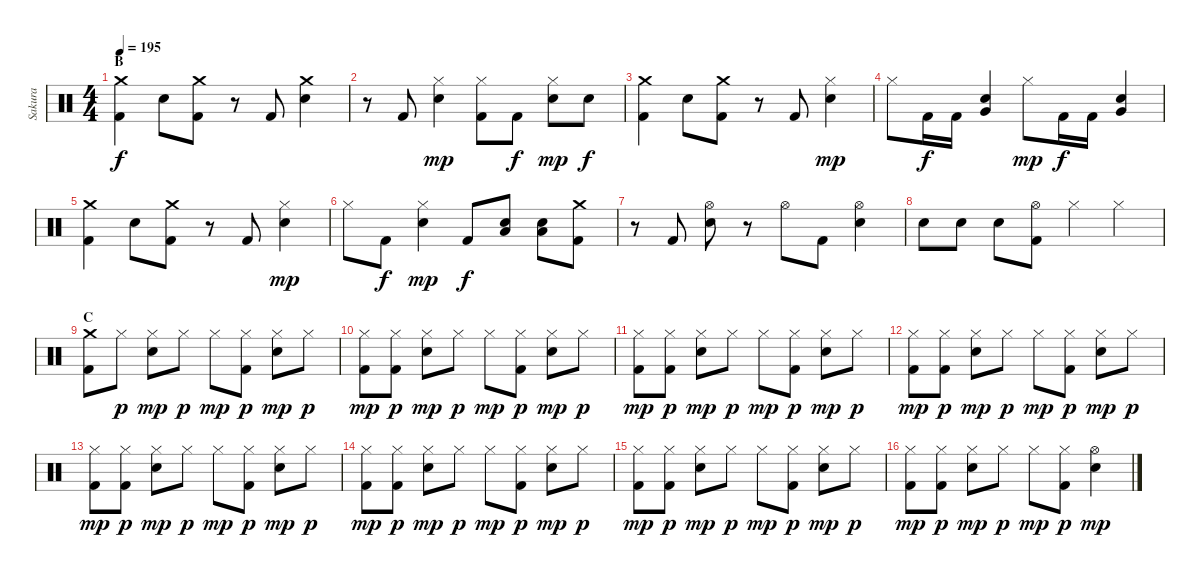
\track ("Sakura" "Sakura") {instrument percussion}
\staff {score}
\articulation defaults
\ts (4 4)
\section ("" "B")
\tempo 195
\clef neutral
\ks c
("Crash medium (hit)" "Kick (hit) 2").4{dy f} "Snare (hit) 2".8 ("Crash medium (hit)" "Kick (hit) 2").8 r.8 "Kick (hit) 2".8 ("Crash medium (hit)" "Snare (hit) 2").4 |
r.8 "Kick (hit) 2".8 ("Hi-Hat (closed)" "Snare (hit) 2").4{dy mp} ("Hi-Hat (closed)" "Kick (hit) 2").8 "Kick (hit) 2".8{dy f} ("Hi-Hat (closed)" "Snare (hit) 2").8{dy mp} "Snare (hit) 2".8{dy f} |
("Crash medium (hit)" "Kick (hit) 2").4 "Snare (hit) 2".8 ("Crash medium (hit)" "Kick (hit) 2").8 r.8 "Kick (hit) 2".8 ("Hi-Hat (closed)" "Snare (hit) 2").4{dy mp} |
"Hi-Hat (closed)".8 "Kick (hit) 2".16{dy f} "Kick (hit) 2".16 ("Snare (hit) 2" "Very Low Tom (hit)").4 "Hi-Hat (closed)".8{dy mp} "Kick (hit) 2".16{dy f} "Kick (hit) 2".16 ("Snare (hit) 2" "Very Low Tom (hit)").4 |
("Crash medium (hit)" "Kick (hit) 2").4 "Snare (hit) 2".8 ("Crash medium (hit)" "Kick (hit) 2").8 r.8 "Kick (hit) 2".8 ("Hi-Hat (closed)" "Snare (hit) 2").4{dy mp} |
"Hi-Hat (closed)".8 "Kick (hit) 2".8{dy f} ("Hi-Hat (closed)" "Snare (hit) 2").4{dy mp} "Kick (hit) 2".8{dy f} ("Snare (hit) 2" "Low Tom (hit)").8 ("Snare (hit) 2" "Low Tom (hit)").8 ("Crash medium (hit)" "Kick (hit) 2").8 |
r.8 "Kick (hit) 2".8 ("Hi-Hat (open)" "Snare (hit) 2").8 r.8 "Hi-Hat (open)".8 "Kick (hit) 2".8 ("Hi-Hat (open)" "Snare (hit) 2").4 |
"Snare (hit) 2".8 "Snare (hit) 2".8 "Snare (hit) 2".8 ("Hi-Hat (open)" "Kick (hit) 2").8 "Hi-Hat (closed)".4 "Hi-Hat (closed)".4 |
\section ("" "C")
("Crash medium (hit)" "Kick (hit) 2").8 "Hi-Hat (closed)".8{dy p} ("Hi-Hat (closed)" "Snare (hit) 2").8{dy mp} "Hi-Hat (closed)".8{dy p} "Hi-Hat (closed)".8{dy mp} ("Hi-Hat (closed)" "Kick (hit) 2").8{dy p} ("Hi-Hat (closed)" "Snare (hit) 2").8{dy mp} "Hi-Hat (closed)".8{dy p} |
("Hi-Hat (closed)" "Kick (hit) 2").8{dy mp} ("Hi-Hat (closed)" "Kick (hit) 2").8{dy p} ("Hi-Hat (closed)" "Snare (hit) 2").8{dy mp} "Hi-Hat (closed)".8{dy p} "Hi-Hat (closed)".8{dy mp} ("Hi-Hat (closed)" "Kick (hit) 2").8{dy p} ("Hi-Hat (closed)" "Snare (hit) 2").8{dy mp} "Hi-Hat (closed)".8{dy p} |
("Hi-Hat (closed)" "Kick (hit) 2").8{dy mp} ("Hi-Hat (closed)" "Kick (hit) 2").8{dy p} ("Hi-Hat (closed)" "Snare (hit) 2").8{dy mp} "Hi-Hat (closed)".8{dy p} "Hi-Hat (closed)".8{dy mp} ("Hi-Hat (closed)" "Kick (hit) 2").8{dy p} ("Hi-Hat (closed)" "Snare (hit) 2").8{dy mp} "Hi-Hat (closed)".8{dy p} |
("Hi-Hat (closed)" "Kick (hit) 2").8{dy mp} ("Hi-Hat (closed)" "Kick (hit) 2").8{dy p} ("Hi-Hat (closed)" "Snare (hit) 2").8{dy mp} "Hi-Hat (closed)".8{dy p} "Hi-Hat (closed)".8{dy mp} ("Hi-Hat (closed)" "Kick (hit) 2").8{dy p} ("Hi-Hat (closed)" "Snare (hit) 2").8{dy mp} "Hi-Hat (closed)".8{dy p} |
("Hi-Hat (closed)" "Kick (hit) 2").8{dy mp} ("Hi-Hat (closed)" "Kick (hit) 2").8{dy p} ("Hi-Hat (closed)" "Snare (hit) 2").8{dy mp} "Hi-Hat (closed)".8{dy p} "Hi-Hat (closed)".8{dy mp} ("Hi-Hat (closed)" "Kick (hit) 2").8{dy p} ("Hi-Hat (closed)" "Snare (hit) 2").8{dy mp} "Hi-Hat (closed)".8{dy p} |
("Hi-Hat (closed)" "Kick (hit) 2").8{dy mp} ("Hi-Hat (closed)" "Kick (hit) 2").8{dy p} ("Hi-Hat (closed)" "Snare (hit) 2").8{dy mp} "Hi-Hat (closed)".8{dy p} "Hi-Hat (closed)".8{dy mp} ("Hi-Hat (closed)" "Kick (hit) 2").8{dy p} ("Hi-Hat (closed)" "Snare (hit) 2").8{dy mp} "Hi-Hat (closed)".8{dy p} |
("Hi-Hat (closed)" "Kick (hit) 2").8{dy mp} ("Hi-Hat (closed)" "Kick (hit) 2").8{dy p} ("Hi-Hat (closed)" "Snare (hit) 2").8{dy mp} "Hi-Hat (closed)".8{dy p} "Hi-Hat (closed)".8{dy mp} ("Hi-Hat (closed)" "Kick (hit) 2").8{dy p} ("Hi-Hat (closed)" "Snare (hit) 2").8{dy mp} "Hi-Hat (closed)".8{dy p} |
("Hi-Hat (closed)" "Kick (hit) 2").8{dy mp} ("Hi-Hat (closed)" "Kick (hit) 2").8{dy p} ("Hi-Hat (closed)" "Snare (hit) 2").8{dy mp} "Hi-Hat (closed)".8{dy p} "Hi-Hat (closed)".8{dy mp} ("Hi-Hat (closed)" "Kick (hit) 2").8{dy p} ("Hi-Hat (open)" "Snare (hit) 2").4{dy mp}
